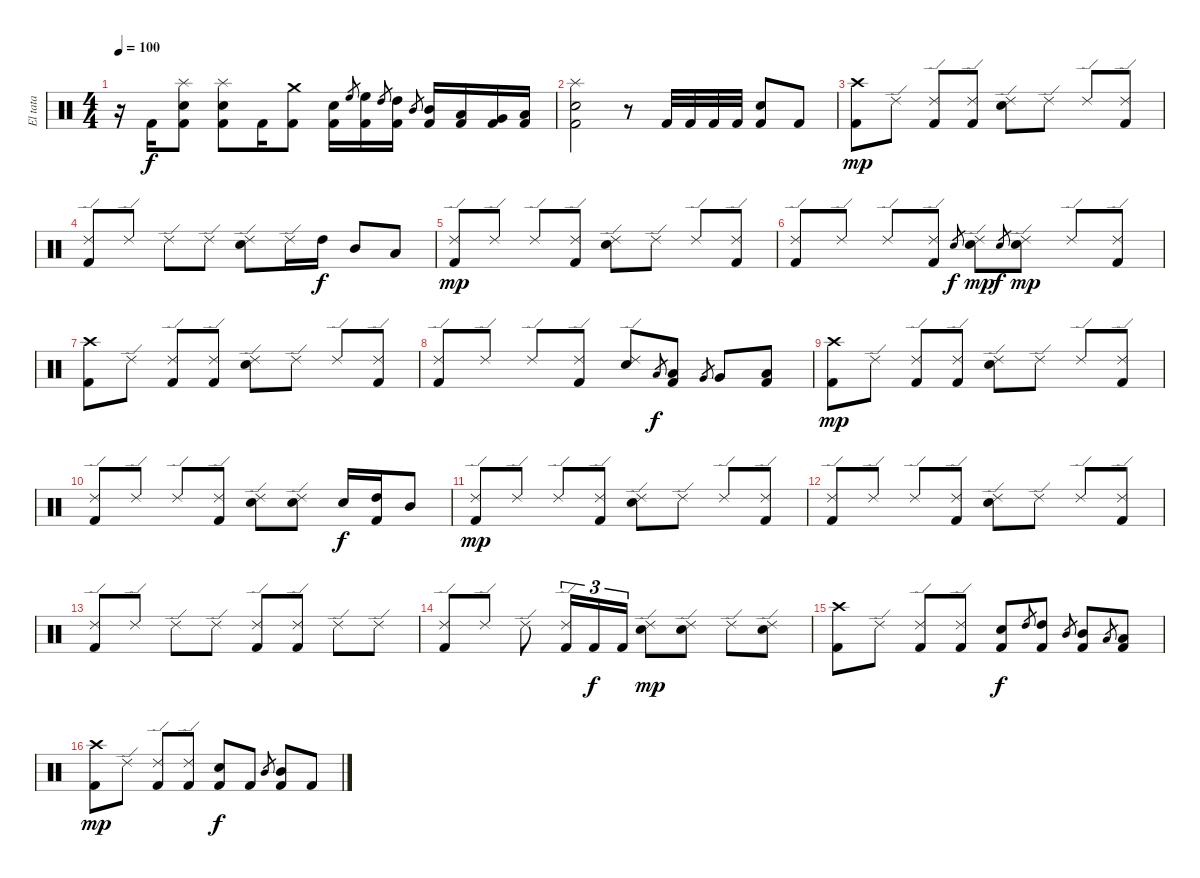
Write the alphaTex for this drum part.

\track ("El tata" "El tata") {instrument percussion}
\staff {score}
\articulation defaults
\ts (4 4)
\tempo 100
\clef neutral
\ks c
r.16{dy f} "Kick (hit) 2".16 ("Kick (hit) 2" "Electric Snare (hit)" "Splash (hit)").8 ("Kick (hit) 2" "Electric Snare (hit)" "Splash (hit)").8 "Kick (hit) 2".16 ("Kick (hit) 2" "Crash medium (hit)").8 ("Kick (hit) 2" "Electric Snare (hit)").16 "High Floor Tom (hit)".8{gr} ("Kick (hit) 2" "High Floor Tom (hit)").16 "High Tom (hit)".8{gr} ("Kick (hit) 2" "High Tom (hit)").16 "Mid Tom (hit)".8{gr} ("Kick (hit) 2" "Mid Tom (hit)").16 ("Kick (hit) 2" "Low Tom (hit)").16 ("Kick (hit) 2" "Very Low Tom (hit)").16 ("Kick (hit) 2" "Low Floor Tom (hit)").16 |
("Kick (hit) 2" "Electric Snare (hit)" "Splash (hit)").2 r.8 "Kick (hit) 2".32 "Kick (hit) 2".32 "Kick (hit) 2".32 "Kick (hit) 2".32 ("Kick (hit) 2" "Electric Snare (hit)").8 "Kick (hit) 2".8 |
("Kick (hit) 2" "Crash high (hit)").8{dy mp} "Ride (edge) 2".8 ("Kick (hit) 2" "Ride (edge) 2").8 ("Kick (hit) 2" "Ride (edge) 2").8 ("Electric Snare (hit)" "Ride (edge) 2").8 "Ride (edge) 2".8 "Ride (edge) 2".8 ("Kick (hit) 2" "Ride (edge) 2").8 |
("Kick (hit) 2" "Ride (edge) 2").8 "Ride (edge) 2".8 "Ride (edge) 2".8 "Ride (edge) 2".8 ("Electric Snare (hit)" "Ride (edge) 2").8 "Ride (edge) 2".16 "High Tom (hit)".16{dy f} "Mid Tom (hit)".8 "Low Tom (hit)".8 |
("Kick (hit) 2" "Ride (edge) 2").8{dy mp} "Ride (edge) 2".8 "Ride (edge) 2".8 ("Kick (hit) 2" "Ride (edge) 2").8 ("Electric Snare (hit)" "Ride (edge) 2").8 "Ride (edge) 2".8 "Ride (edge) 2".8 ("Kick (hit) 2" "Ride (edge) 2").8 |
("Kick (hit) 2" "Ride (edge) 2").8 "Ride (edge) 2".8 "Ride (edge) 2".8 ("Kick (hit) 2" "Ride (edge) 2").8 "Electric Snare (hit)".8{gr dy f} ("Electric Snare (hit)" "Ride (edge) 2").8{dy mp} "Electric Snare (hit)".8{gr dy f} ("Electric Snare (hit)" "Ride (edge) 2").8{dy mp} "Ride (edge) 2".8 ("Kick (hit) 2" "Ride (edge) 2").8 |
("Kick (hit) 2" "Crash high (hit)").8 "Ride (edge) 2".8 ("Kick (hit) 2" "Ride (edge) 2").8 ("Kick (hit) 2" "Ride (edge) 2").8 ("Electric Snare (hit)" "Ride (edge) 2").8 "Ride (edge) 2".8 "Ride (edge) 2".8 ("Kick (hit) 2" "Ride (edge) 2").8 |
("Kick (hit) 2" "Ride (edge) 2").8 "Ride (edge) 2".8 "Ride (edge) 2".8 ("Kick (hit) 2" "Ride (edge) 2").8 ("Electric Snare (hit)" "Ride (edge) 2").8 "Low Tom (hit)".8{gr dy f} ("Kick (hit) 2" "Low Tom (hit)").8 "Very Low Tom (hit)".8{gr} "Very Low Tom (hit)".8 ("Kick (hit) 2" "Low Floor Tom (hit)").8 |
("Kick (hit) 2" "Crash high (hit)").8{dy mp} "Ride (edge) 2".8 ("Kick (hit) 2" "Ride (edge) 2").8 ("Kick (hit) 2" "Ride (edge) 2").8 ("Electric Snare (hit)" "Ride (edge) 2").8 "Ride (edge) 2".8 "Ride (edge) 2".8 ("Kick (hit) 2" "Ride (edge) 2").8 |
("Kick (hit) 2" "Ride (edge) 2").8 "Ride (edge) 2".8 "Ride (edge) 2".8 ("Kick (hit) 2" "Ride (edge) 2").8 ("Electric Snare (hit)" "Ride (edge) 2").8 ("Electric Snare (hit)" "Ride (edge) 2").8 "Electric Snare (hit)".16{dy f} ("Kick (hit) 2" "High Tom (hit)").16 "Mid Tom (hit)".8 |
("Kick (hit) 2" "Ride (edge) 2").8{dy mp} "Ride (edge) 2".8 "Ride (edge) 2".8 ("Kick (hit) 2" "Ride (edge) 2").8 ("Electric Snare (hit)" "Ride (edge) 2").8 "Ride (edge) 2".8 "Ride (edge) 2".8 ("Kick (hit) 2" "Ride (edge) 2").8 |
("Kick (hit) 2" "Ride (edge) 2").8 "Ride (edge) 2".8 "Ride (edge) 2".8 ("Kick (hit) 2" "Ride (edge) 2").8 ("Electric Snare (hit)" "Ride (edge) 2").8 "Ride (edge) 2".8 "Ride (edge) 2".8 ("Kick (hit) 2" "Ride (edge) 2").8 |
("Kick (hit) 2" "Ride (edge) 2").8 "Ride (edge) 2".8 "Ride (edge) 2".8 "Ride (edge) 2".8 ("Kick (hit) 2" "Ride (edge) 2").8 ("Kick (hit) 2" "Ride (edge) 2").8 "Ride (edge) 2".8 "Ride (edge) 2".8 |
("Kick (hit) 2" "Ride (edge) 2").8 "Ride (edge) 2".8 "Ride (edge) 2".8 ("Kick (hit) 2" "Ride (edge) 2").16{tu (3 2)} "Kick (hit) 2".16{tu (3 2) dy f} "Kick (hit) 2".16{tu (3 2)} ("Electric Snare (hit)" "Ride (edge) 2").8{dy mp} ("Electric Snare (hit)" "Ride (edge) 2").8 "Ride (edge) 2".8 ("Electric Snare (hit)" "Ride (edge) 2").8 |
("Kick (hit) 2" "Crash high (hit)").8 "Ride (edge) 2".8 ("Kick (hit) 2" "Ride (edge) 2").8 ("Kick (hit) 2" "Ride (edge) 2").8 ("Kick (hit) 2" "Electric Snare (hit)").8{dy f} "High Tom (hit)".8{gr} ("Kick (hit) 2" "High Tom (hit)").8 "Mid Tom (hit)".8{gr} ("Kick (hit) 2" "Mid Tom (hit)").8 "Low Tom (hit)".8{gr} ("Kick (hit) 2" "Low Tom (hit)").8 |
("Kick (hit) 2" "Crash high (hit)").8{dy mp} "Ride (edge) 2".8 ("Kick (hit) 2" "Ride (edge) 2").8 ("Kick (hit) 2" "Ride (edge) 2").8 ("Kick (hit) 2" "Electric Snare (hit)").8{dy f} "Kick (hit) 2".8 "Mid Tom (hit)".8{gr} ("Kick (hit) 2" "Mid Tom (hit)").8 "Kick (hit) 2".8
